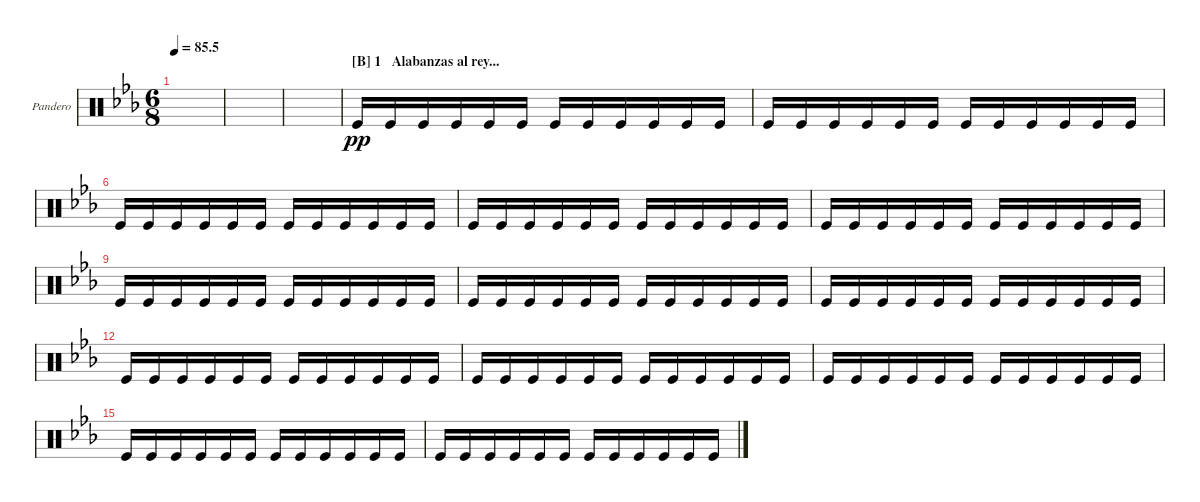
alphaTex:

\defaultSystemsLayout 4
\bracketExtendMode groupsimilarinstruments
\multiTrackTrackNamePolicy allsystems
\firstSystemTrackNameOrientation horizontal
\otherSystemsTrackNameOrientation horizontal
\defaultBarNumberDisplay FirstOfSystem
\track ("Pandero" "Pandero") {instrument percussion}
\staff {score}
\articulation defaults
\ts (6 8)
\tempo
85.5
\accidentals auto
\clef neutral
\ottava regular
\simile none
\scale
0.333333
\ks eb
|
\scale
0.333333 |
\scale
0.333333 |
\section ("B" "1   Alabanzas al rey...")
\scale
0.333333 "Kick (hit)".16{dy pp} "Kick (hit)".16 "Kick (hit)".16 "Kick (hit)".16 "Kick (hit)".16 "Kick (hit)".16 "Kick (hit)".16 "Kick (hit)".16 "Kick (hit)".16 "Kick (hit)".16 "Kick (hit)".16 "Kick (hit)".16 |
\scale
0.333333 "Kick (hit)".16 "Kick (hit)".16 "Kick (hit)".16 "Kick (hit)".16 "Kick (hit)".16 "Kick (hit)".16 "Kick (hit)".16 "Kick (hit)".16 "Kick (hit)".16 "Kick (hit)".16 "Kick (hit)".16 "Kick (hit)".16 |
\scale
0.333333 "Kick (hit)".16 "Kick (hit)".16 "Kick (hit)".16 "Kick (hit)".16 "Kick (hit)".16 "Kick (hit)".16 "Kick (hit)".16 "Kick (hit)".16 "Kick (hit)".16 "Kick (hit)".16 "Kick (hit)".16 "Kick (hit)".16 |
\scale
0.333333 "Kick (hit)".16 "Kick (hit)".16 "Kick (hit)".16 "Kick (hit)".16 "Kick (hit)".16 "Kick (hit)".16 "Kick (hit)".16 "Kick (hit)".16 "Kick (hit)".16 "Kick (hit)".16 "Kick (hit)".16 "Kick (hit)".16 |
\scale
0.333333 "Kick (hit)".16 "Kick (hit)".16 "Kick (hit)".16 "Kick (hit)".16 "Kick (hit)".16 "Kick (hit)".16 "Kick (hit)".16 "Kick (hit)".16 "Kick (hit)".16 "Kick (hit)".16 "Kick (hit)".16 "Kick (hit)".16 |
\scale
0.333333 "Kick (hit)".16 "Kick (hit)".16 "Kick (hit)".16 "Kick (hit)".16 "Kick (hit)".16 "Kick (hit)".16 "Kick (hit)".16 "Kick (hit)".16 "Kick (hit)".16 "Kick (hit)".16 "Kick (hit)".16 "Kick (hit)".16 |
\scale
0.333333 "Kick (hit)".16 "Kick (hit)".16 "Kick (hit)".16 "Kick (hit)".16 "Kick (hit)".16 "Kick (hit)".16 "Kick (hit)".16 "Kick (hit)".16 "Kick (hit)".16 "Kick (hit)".16 "Kick (hit)".16 "Kick (hit)".16 |
\scale
0.333333 "Kick (hit)".16 "Kick (hit)".16 "Kick (hit)".16 "Kick (hit)".16 "Kick (hit)".16 "Kick (hit)".16 "Kick (hit)".16 "Kick (hit)".16 "Kick (hit)".16 "Kick (hit)".16 "Kick (hit)".16 "Kick (hit)".16 |
\scale
0.333333 "Kick (hit)".16 "Kick (hit)".16 "Kick (hit)".16 "Kick (hit)".16 "Kick (hit)".16 "Kick (hit)".16 "Kick (hit)".16 "Kick (hit)".16 "Kick (hit)".16 "Kick (hit)".16 "Kick (hit)".16 "Kick (hit)".16 |
\scale
0.333333 "Kick (hit)".16 "Kick (hit)".16 "Kick (hit)".16 "Kick (hit)".16 "Kick (hit)".16 "Kick (hit)".16 "Kick (hit)".16 "Kick (hit)".16 "Kick (hit)".16 "Kick (hit)".16 "Kick (hit)".16 "Kick (hit)".16 |
\scale
0.333333 "Kick (hit)".16 "Kick (hit)".16 "Kick (hit)".16 "Kick (hit)".16 "Kick (hit)".16 "Kick (hit)".16 "Kick (hit)".16 "Kick (hit)".16 "Kick (hit)".16 "Kick (hit)".16 "Kick (hit)".16 "Kick (hit)".16 |
\scale
0.333333 "Kick (hit)".16 "Kick (hit)".16 "Kick (hit)".16 "Kick (hit)".16 "Kick (hit)".16 "Kick (hit)".16 "Kick (hit)".16 "Kick (hit)".16 "Kick (hit)".16 "Kick (hit)".16 "Kick (hit)".16 "Kick (hit)".16 |
\scale
0.333333 "Kick (hit)".16 "Kick (hit)".16 "Kick (hit)".16 "Kick (hit)".16 "Kick (hit)".16 "Kick (hit)".16 "Kick (hit)".16 "Kick (hit)".16 "Kick (hit)".16 "Kick (hit)".16 "Kick (hit)".16 "Kick (hit)".16
